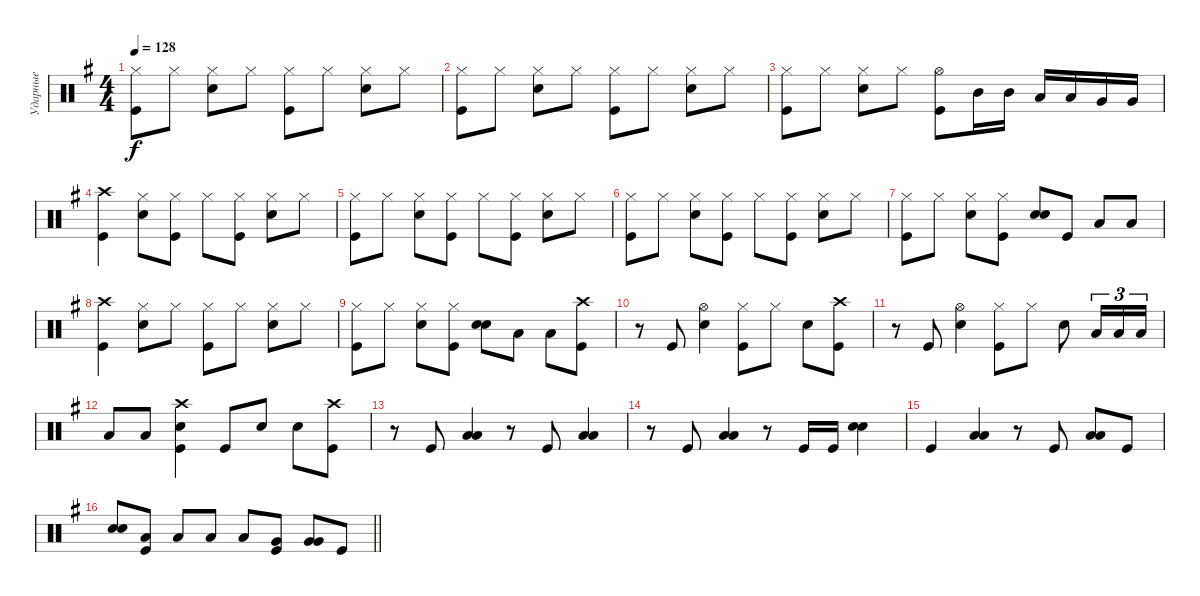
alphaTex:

\track ("Ударные" "Ударные") {instrument percussion}
\staff {score}
\articulation defaults
\ts (4 4)
\tempo 128
\clef neutral
\ks eminor
("Hi-Hat (closed)" "Kick (hit)").8{dy f} "Hi-Hat (closed)".8 ("Hi-Hat (closed)" "Snare (hit) 2").8 "Hi-Hat (closed)".8 ("Hi-Hat (closed)" "Kick (hit)").8 "Hi-Hat (closed)".8 ("Hi-Hat (closed)" "Snare (hit) 2").8 "Hi-Hat (closed)".8 |
("Hi-Hat (closed)" "Kick (hit)").8 "Hi-Hat (closed)".8 ("Hi-Hat (closed)" "Snare (hit) 2").8 "Hi-Hat (closed)".8 ("Hi-Hat (closed)" "Kick (hit)").8 "Hi-Hat (closed)".8 ("Hi-Hat (closed)" "Snare (hit) 2").8 "Hi-Hat (closed)".8 |
("Hi-Hat (closed)" "Kick (hit)").8 "Hi-Hat (closed)".8 ("Hi-Hat (closed)" "Snare (hit) 2").8 "Hi-Hat (closed)".8 ("Kick (hit)" "Hi-Hat (open)").8 "Mid Tom (hit)".16 "Mid Tom (hit)".16 "Low Tom (hit)".16 "Low Tom (hit)".16 "Very Low Tom (hit)".16 "Very Low Tom (hit)".16 |
("Crash high (hit)" "Kick (hit)").4 ("Snare (hit) 2" "Hi-Hat (closed)").8 ("Hi-Hat (closed)" "Kick (hit)").8 "Hi-Hat (closed)".8 ("Hi-Hat (closed)" "Kick (hit)").8 ("Hi-Hat (closed)" "Snare (hit) 2").8 "Hi-Hat (closed)".8 |
("Hi-Hat (closed)" "Kick (hit)").8 "Hi-Hat (closed)".8 ("Hi-Hat (closed)" "Snare (hit) 2").8 ("Hi-Hat (closed)" "Kick (hit)").8 "Hi-Hat (closed)".8 ("Hi-Hat (closed)" "Kick (hit)").8 ("Hi-Hat (closed)" "Snare (hit) 2").8 "Hi-Hat (closed)".8 |
("Hi-Hat (closed)" "Kick (hit)").8 "Hi-Hat (closed)".8 ("Hi-Hat (closed)" "Snare (hit) 2").8 ("Hi-Hat (closed)" "Kick (hit)").8 "Hi-Hat (closed)".8 ("Hi-Hat (closed)" "Kick (hit)").8 ("Hi-Hat (closed)" "Snare (hit) 2").8 "Hi-Hat (closed)".8 |
("Hi-Hat (closed)" "Kick (hit)").8 "Hi-Hat (closed)".8 ("Hi-Hat (closed)" "Snare (hit) 2").8 ("Hi-Hat (closed)" "Kick (hit)").8 ("Snare (hit) 2" "Snare (hit) 2").8{bd 240} "Kick (hit)".8 "Low Tom (hit)".8 "Low Tom (hit)".8 |
("Kick (hit)" "Crash high (hit)").4 ("Hi-Hat (closed)" "Snare (hit) 2").8 "Hi-Hat (closed)".8 ("Hi-Hat (closed)" "Kick (hit)").8 "Hi-Hat (closed)".8 ("Hi-Hat (closed)" "Snare (hit) 2").8 "Hi-Hat (closed)".8 |
("Hi-Hat (closed)" "Kick (hit)").8 "Hi-Hat (closed)".8 ("Snare (hit) 2" "Hi-Hat (closed)").8 ("Hi-Hat (closed)" "Kick (hit)").8 ("Snare (hit) 2" "Snare (hit) 2").8{bd 240} "Low Tom (hit)".8 "Low Tom (hit)".8 ("Kick (hit)" "Crash high (hit)").8 |
r.8 "Kick (hit)".8 ("Snare (hit) 2" "Hi-Hat (open)").4 ("Kick (hit)" "Hi-Hat (closed)").8 "Hi-Hat (closed)".8 "Snare (hit) 2".8 ("Kick (hit)" "Crash high (hit)").8 |
r.8 "Kick (hit)".8 ("Snare (hit) 2" "Hi-Hat (open)").4 ("Kick (hit)" "Hi-Hat (closed)").8 "Hi-Hat (closed)".8 "Snare (hit) 2".8 "Low Floor Tom (hit)".16{tu (3 2)} "Low Floor Tom (hit)".16{tu (3 2)} "Low Floor Tom (hit)".16{tu (3 2)} |
"Low Floor Tom (hit)".8 "Low Floor Tom (hit)".8 ("Kick (hit)" "Crash high (hit)" "Snare (hit) 2").4 "Kick (hit)".8 "Snare (hit) 2".8 "Snare (hit) 2".8 ("Kick (hit)" "Crash high (hit)").8 |
r.8 "Kick (hit)".8 ("Low Tom (hit)" "Low Tom (hit)").4{bd 240} r.8 "Kick (hit)".8 ("Low Tom (hit)" "Low Tom (hit)").4{bd 240} |
r.8 "Kick (hit)".8 ("Low Tom (hit)" "Low Tom (hit)").4{bd 240} r.8 "Kick (hit)".16 "Kick (hit)".16 ("Snare (hit) 2" "Snare (hit) 2").4{bd 240} |
"Kick (hit)".4 ("Low Tom (hit)" "Low Tom (hit)").4{bd 240} r.8 "Kick (hit)".8 ("Low Tom (hit)" "Low Tom (hit)").8{bd 240} "Kick (hit)".8 |
\barLineRight lightlight
("Snare (hit) 2" "Snare (hit) 2").8{bd 240} ("Kick (hit)" "Low Floor Tom (hit)").8{bd 240} "Low Floor Tom (hit)".8 "Low Tom (hit)".8 "Low Tom (hit)".8 ("Kick (hit)" "Very Low Tom (hit)").8{bd 240} ("Very Low Tom (hit)" "Very Low Tom (hit)").8{bd 240} "Kick (hit)".8
